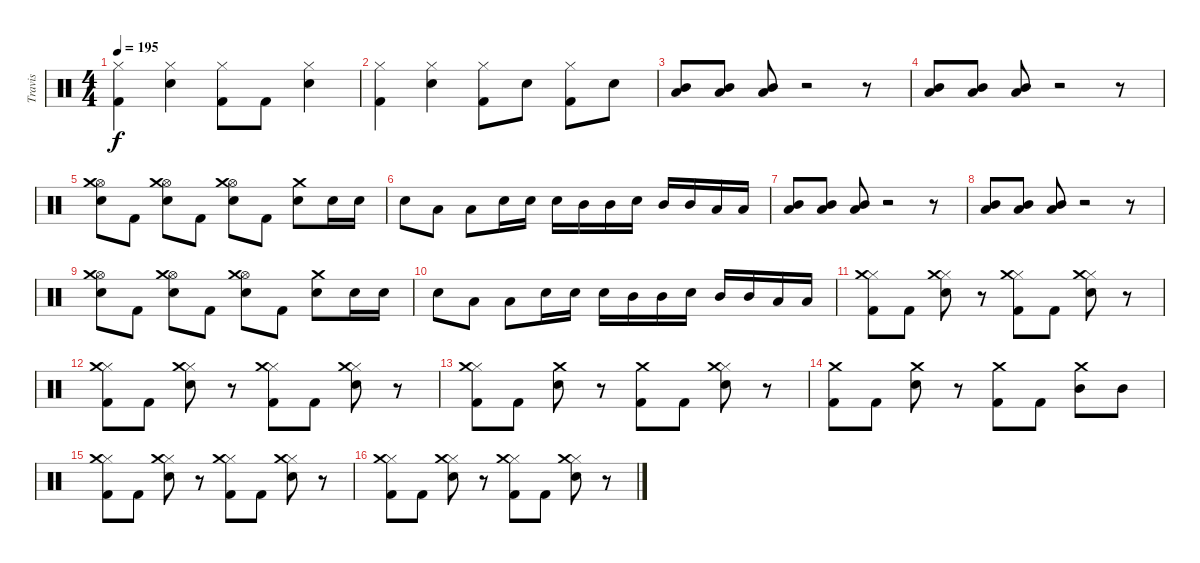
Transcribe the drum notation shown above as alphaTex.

\track ("Travis" "Travis") {instrument percussion}
\staff {score}
\articulation defaults
\ts (4 4)
\tempo 195
\clef neutral
\ks c
("Kick (hit) 2" "Hi-Hat (closed)").4{dy f} ("Electric Snare (hit)" "Hi-Hat (closed)").4 ("Kick (hit) 2" "Hi-Hat (closed)").8 "Kick (hit) 2".8 ("Electric Snare (hit)" "Hi-Hat (closed)").4 |
("Kick (hit) 2" "Hi-Hat (closed)").4 ("Electric Snare (hit)" "Hi-Hat (closed)").4 ("Kick (hit) 2" "Hi-Hat (closed)").8 "Electric Snare (hit)".8 ("Kick (hit) 2" "Hi-Hat (closed)").8 "Electric Snare (hit)".8 |
("Low Floor Tom (hit)" "Mid Tom (hit)").8 ("Low Floor Tom (hit)" "Mid Tom (hit)").8 ("Low Floor Tom (hit)" "Mid Tom (hit)").8 r.2 r.8 |
("Low Floor Tom (hit)" "Mid Tom (hit)").8 ("Low Floor Tom (hit)" "Mid Tom (hit)").8 ("Low Floor Tom (hit)" "Mid Tom (hit)").8 r.2 r.8 |
("Hi-Hat (open)" "Electric Snare (hit)" "Crash medium (hit)").8 "Kick (hit) 2".8 ("Hi-Hat (open)" "Electric Snare (hit)" "Crash medium (hit)").8 "Kick (hit) 2".8 ("Hi-Hat (open)" "Electric Snare (hit)" "Crash medium (hit)").8 "Kick (hit) 2".8 ("Electric Snare (hit)" "Crash medium (hit)").8 "Electric Snare (hit)".16 "Electric Snare (hit)".16 |
"Electric Snare (hit)".8 "Low Floor Tom (hit)".8 "Low Floor Tom (hit)".8 "Electric Snare (hit)".16 "Electric Snare (hit)".16 "Electric Snare (hit)".16 "Mid Tom (hit)".16 "Mid Tom (hit)".16 "Electric Snare (hit)".16 "Mid Tom (hit)".16 "Mid Tom (hit)".16 "Low Floor Tom (hit)".16 "Low Floor Tom (hit)".16 |
("Low Floor Tom (hit)" "Mid Tom (hit)").8 ("Low Floor Tom (hit)" "Mid Tom (hit)").8 ("Low Floor Tom (hit)" "Mid Tom (hit)").8 r.2 r.8 |
("Low Floor Tom (hit)" "Mid Tom (hit)").8 ("Low Floor Tom (hit)" "Mid Tom (hit)").8 ("Low Floor Tom (hit)" "Mid Tom (hit)").8 r.2 r.8 |
("Hi-Hat (open)" "Electric Snare (hit)" "Crash medium (hit)").8 "Kick (hit) 2".8 ("Hi-Hat (open)" "Electric Snare (hit)" "Crash medium (hit)").8 "Kick (hit) 2".8 ("Hi-Hat (open)" "Electric Snare (hit)" "Crash medium (hit)").8 "Kick (hit) 2".8 ("Electric Snare (hit)" "Crash medium (hit)").8 "Electric Snare (hit)".16 "Electric Snare (hit)".16 |
"Electric Snare (hit)".8 "Low Floor Tom (hit)".8 "Low Floor Tom (hit)".8 "Electric Snare (hit)".16 "Electric Snare (hit)".16 "Electric Snare (hit)".16 "Mid Tom (hit)".16 "Mid Tom (hit)".16 "Electric Snare (hit)".16 "Mid Tom (hit)".16 "Mid Tom (hit)".16 "Low Floor Tom (hit)".16 "Low Floor Tom (hit)".16 |
("Kick (hit) 2" "Hi-Hat (closed)" "Crash medium (hit)").8 "Kick (hit) 2".8 ("Electric Snare (hit)" "Hi-Hat (closed)" "Crash medium (hit)").8 r.8 ("Kick (hit) 2" "Hi-Hat (closed)" "Crash medium (hit)").8 "Kick (hit) 2".8 ("Electric Snare (hit)" "Hi-Hat (closed)" "Crash medium (hit)").8 r.8 |
("Kick (hit) 2" "Hi-Hat (closed)" "Crash medium (hit)").8 "Kick (hit) 2".8 ("Electric Snare (hit)" "Hi-Hat (closed)" "Crash medium (hit)").8 r.8 ("Kick (hit) 2" "Hi-Hat (closed)" "Crash medium (hit)").8 "Kick (hit) 2".8 ("Electric Snare (hit)" "Hi-Hat (closed)" "Crash medium (hit)").8 r.8 |
("Kick (hit) 2" "Hi-Hat (closed)" "Crash medium (hit)").8 "Kick (hit) 2".8 ("Electric Snare (hit)" "Crash medium (hit)").8 r.8 ("Kick (hit) 2" "Crash medium (hit)").8 "Kick (hit) 2".8 ("Electric Snare (hit)" "Hi-Hat (closed)" "Crash medium (hit)").8 r.8 |
("Kick (hit) 2" "Crash medium (hit)").8 "Kick (hit) 2".8 ("Electric Snare (hit)" "Crash medium (hit)").8 r.8 ("Kick (hit) 2" "Crash medium (hit)").8 "Kick (hit) 2".8 ("Mid Tom (hit)" "Crash medium (hit)").8 "Mid Tom (hit)".8 |
("Kick (hit) 2" "Hi-Hat (closed)" "Crash medium (hit)").8 "Kick (hit) 2".8 ("Electric Snare (hit)" "Hi-Hat (closed)" "Crash medium (hit)").8 r.8 ("Kick (hit) 2" "Hi-Hat (closed)" "Crash medium (hit)").8 "Kick (hit) 2".8 ("Electric Snare (hit)" "Hi-Hat (closed)" "Crash medium (hit)").8 r.8 |
("Kick (hit) 2" "Hi-Hat (closed)" "Crash medium (hit)").8 "Kick (hit) 2".8 ("Electric Snare (hit)" "Hi-Hat (closed)" "Crash medium (hit)").8 r.8 ("Kick (hit) 2" "Hi-Hat (closed)" "Crash medium (hit)").8 "Kick (hit) 2".8 ("Electric Snare (hit)" "Hi-Hat (closed)" "Crash medium (hit)").8 r.8
